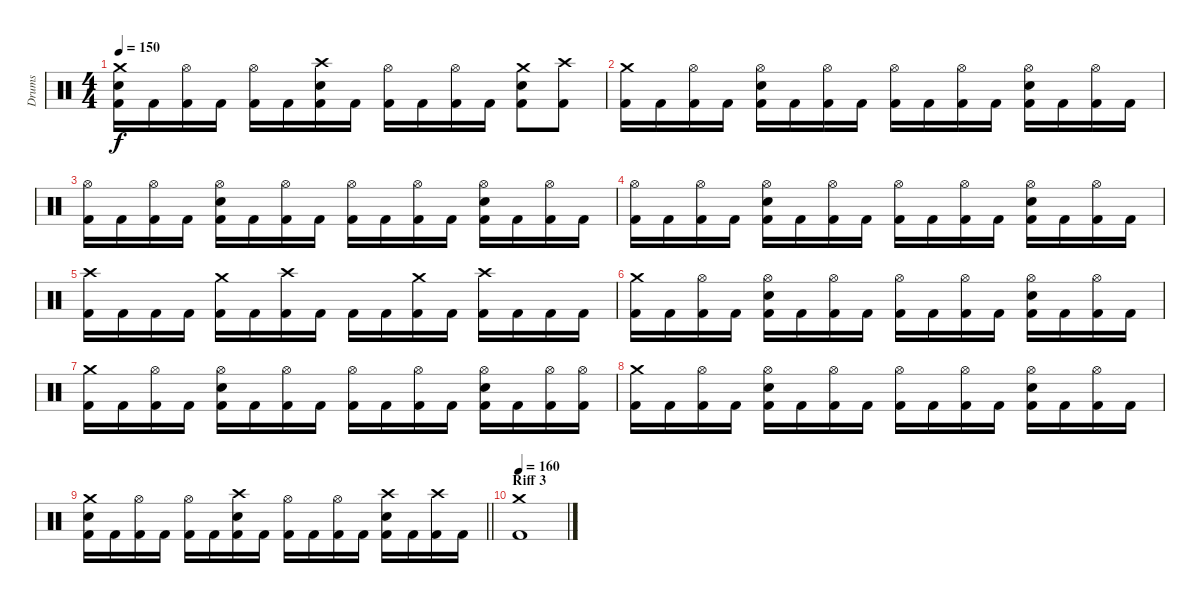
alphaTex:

\track ("Drums" "Drums") {instrument percussion}
\staff {score}
\articulation defaults
\ts (4 4)
\tempo 150
\clef neutral
\ks c
("Crash medium (hit)" "Electric Snare (hit)" "Kick (hit) 2").16{dy f} "Kick (hit) 2".16 ("Hi-Hat (open)" "Kick (hit) 2").16 "Kick (hit) 2".16 ("Hi-Hat (open)" "Kick (hit) 2").16 "Kick (hit) 2".16 ("Crash high (hit)" "Electric Snare (hit)" "Kick (hit) 2").16 "Kick (hit) 2".16 ("Hi-Hat (open)" "Kick (hit) 2").16 "Kick (hit) 2".16 ("Hi-Hat (open)" "Kick (hit) 2").16 "Kick (hit) 2".16 ("Crash medium (hit)" "Electric Snare (hit)" "Kick (hit) 2").8 ("Crash high (hit)" "Kick (hit) 2").8 |
("Crash medium (hit)" "Kick (hit) 2").16 "Kick (hit) 2".16 ("Hi-Hat (open)" "Kick (hit) 2").16 "Kick (hit) 2".16 ("Hi-Hat (open)" "Electric Snare (hit)" "Kick (hit) 2").16 "Kick (hit) 2".16 ("Hi-Hat (open)" "Kick (hit) 2").16 "Kick (hit) 2".16 ("Hi-Hat (open)" "Kick (hit) 2").16 "Kick (hit) 2".16 ("Hi-Hat (open)" "Kick (hit) 2").16 "Kick (hit) 2".16 ("Hi-Hat (open)" "Electric Snare (hit)" "Kick (hit) 2").16 "Kick (hit) 2".16 ("Hi-Hat (open)" "Kick (hit) 2").16 "Kick (hit) 2".16 |
("Hi-Hat (open)" "Kick (hit) 2").16 "Kick (hit) 2".16 ("Hi-Hat (open)" "Kick (hit) 2").16 "Kick (hit) 2".16 ("Hi-Hat (open)" "Electric Snare (hit)" "Kick (hit) 2").16 "Kick (hit) 2".16 ("Hi-Hat (open)" "Kick (hit) 2").16 "Kick (hit) 2".16 ("Hi-Hat (open)" "Kick (hit) 2").16 "Kick (hit) 2".16 ("Hi-Hat (open)" "Kick (hit) 2").16 "Kick (hit) 2".16 ("Hi-Hat (open)" "Electric Snare (hit)" "Kick (hit) 2").16 "Kick (hit) 2".16 ("Hi-Hat (open)" "Kick (hit) 2").16 "Kick (hit) 2".16 |
("Hi-Hat (open)" "Kick (hit) 2").16 "Kick (hit) 2".16 ("Hi-Hat (open)" "Kick (hit) 2").16 "Kick (hit) 2".16 ("Hi-Hat (open)" "Electric Snare (hit)" "Kick (hit) 2").16 "Kick (hit) 2".16 ("Hi-Hat (open)" "Kick (hit) 2").16 "Kick (hit) 2".16 ("Hi-Hat (open)" "Kick (hit) 2").16 "Kick (hit) 2".16 ("Hi-Hat (open)" "Kick (hit) 2").16 "Kick (hit) 2".16 ("Hi-Hat (open)" "Electric Snare (hit)" "Kick (hit) 2").16 "Kick (hit) 2".16 ("Hi-Hat (open)" "Kick (hit) 2").16 "Kick (hit) 2".16 |
("Crash high (hit)" "Kick (hit) 2").16 "Kick (hit) 2".16 "Kick (hit) 2".16 "Kick (hit) 2".16 ("Crash medium (hit)" "Kick (hit) 2").16 "Kick (hit) 2".16 ("Crash high (hit)" "Kick (hit) 2").16 "Kick (hit) 2".16 "Kick (hit) 2".16 "Kick (hit) 2".16 ("Crash medium (hit)" "Kick (hit) 2").16 "Kick (hit) 2".16 ("Crash high (hit)" "Kick (hit) 2").16 "Kick (hit) 2".16 "Kick (hit) 2".16 "Kick (hit) 2".16 |
("Crash medium (hit)" "Kick (hit) 2").16 "Kick (hit) 2".16 ("Hi-Hat (open)" "Kick (hit) 2").16 "Kick (hit) 2".16 ("Hi-Hat (open)" "Electric Snare (hit)" "Kick (hit) 2").16 "Kick (hit) 2".16 ("Hi-Hat (open)" "Kick (hit) 2").16 "Kick (hit) 2".16 ("Hi-Hat (open)" "Kick (hit) 2").16 "Kick (hit) 2".16 ("Hi-Hat (open)" "Kick (hit) 2").16 "Kick (hit) 2".16 ("Hi-Hat (open)" "Electric Snare (hit)" "Kick (hit) 2").16 "Kick (hit) 2".16 ("Hi-Hat (open)" "Kick (hit) 2").16 "Kick (hit) 2".16 |
("Crash medium (hit)" "Kick (hit) 2").16 "Kick (hit) 2".16 ("Hi-Hat (open)" "Kick (hit) 2").16 "Kick (hit) 2".16 ("Hi-Hat (open)" "Electric Snare (hit)" "Kick (hit) 2").16 "Kick (hit) 2".16 ("Hi-Hat (open)" "Kick (hit) 2").16 "Kick (hit) 2".16 ("Hi-Hat (open)" "Kick (hit) 2").16 "Kick (hit) 2".16 ("Hi-Hat (open)" "Kick (hit) 2").16 "Kick (hit) 2".16 ("Hi-Hat (open)" "Electric Snare (hit)" "Kick (hit) 2").16 "Kick (hit) 2".16 ("Hi-Hat (open)" "Kick (hit) 2").16 ("Hi-Hat (open)" "Kick (hit) 2").16 |
("Crash medium (hit)" "Kick (hit) 2").16 "Kick (hit) 2".16 ("Hi-Hat (open)" "Kick (hit) 2").16 "Kick (hit) 2".16 ("Hi-Hat (open)" "Electric Snare (hit)" "Kick (hit) 2").16 "Kick (hit) 2".16 ("Hi-Hat (open)" "Kick (hit) 2").16 "Kick (hit) 2".16 ("Hi-Hat (open)" "Kick (hit) 2").16 "Kick (hit) 2".16 ("Hi-Hat (open)" "Kick (hit) 2").16 "Kick (hit) 2".16 ("Hi-Hat (open)" "Electric Snare (hit)" "Kick (hit) 2").16 "Kick (hit) 2".16 ("Hi-Hat (open)" "Kick (hit) 2").16 "Kick (hit) 2".16 |
\barLineRight lightlight
("Crash medium (hit)" "Electric Snare (hit)" "Kick (hit) 2").16 "Kick (hit) 2".16 ("Hi-Hat (open)" "Kick (hit) 2").16 "Kick (hit) 2".16 ("Hi-Hat (open)" "Kick (hit) 2").16 "Kick (hit) 2".16 ("Crash high (hit)" "Electric Snare (hit)" "Kick (hit) 2").16 "Kick (hit) 2".16 ("Hi-Hat (open)" "Kick (hit) 2").16 "Kick (hit) 2".16 ("Hi-Hat (open)" "Kick (hit) 2").16 "Kick (hit) 2".16 ("Crash high (hit)" "Electric Snare (hit)" "Kick (hit) 2").16 "Kick (hit) 2".16 ("Crash high (hit)" "Kick (hit) 2").16 "Kick (hit) 2".16 |
\section ("" "Riff 3")
\tempo 160
("Crash medium (hit)" "Kick (hit) 2").1
